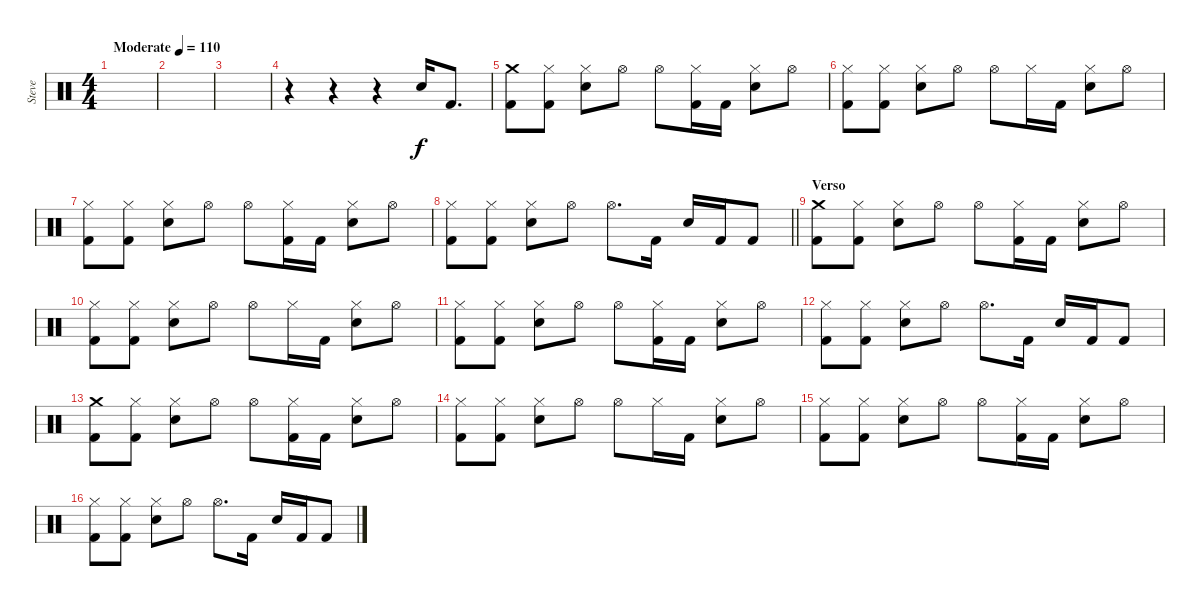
\track ("Steve " "Steve ") {instrument percussion}
\staff {score}
\articulation defaults
\ts (4 4)
\tempo (110 "Moderate")
\clef neutral
\ks c
|
|
|
r.4 r.4 r.4 "Electric Snare (hit)".16 "Kick (hit) 2".8{d} |
("Crash medium (hit)" "Kick (hit) 2").8 ("Hi-Hat (closed)" "Kick (hit) 2").8 ("Hi-Hat (closed)" "Electric Snare (hit)").8 "Hi-Hat (open)".8 "Hi-Hat (open)".8 ("Hi-Hat (closed)" "Kick (hit) 2").16 "Kick (hit) 2".16 ("Hi-Hat (closed)" "Electric Snare (hit)").8 "Hi-Hat (open)".8 |
("Hi-Hat (closed)" "Kick (hit) 2").8 ("Hi-Hat (closed)" "Kick (hit) 2").8 ("Hi-Hat (closed)" "Electric Snare (hit)").8 "Hi-Hat (open)".8 "Hi-Hat (open)".8 "Hi-Hat (closed)".16 "Kick (hit) 2".16 ("Hi-Hat (closed)" "Electric Snare (hit)").8 "Hi-Hat (open)".8 |
("Hi-Hat (closed)" "Kick (hit) 2").8 ("Hi-Hat (closed)" "Kick (hit) 2").8 ("Hi-Hat (closed)" "Electric Snare (hit)").8 "Hi-Hat (open)".8 "Hi-Hat (open)".8 ("Hi-Hat (closed)" "Kick (hit) 2").16 "Kick (hit) 2".16 ("Hi-Hat (closed)" "Electric Snare (hit)").8 "Hi-Hat (open)".8 |
\barLineRight lightlight
("Hi-Hat (closed)" "Kick (hit) 2").8 ("Hi-Hat (closed)" "Kick (hit) 2").8 ("Hi-Hat (closed)" "Electric Snare (hit)").8 "Hi-Hat (open)".8 "Hi-Hat (open)".8{d} "Kick (hit) 2".16 "Electric Snare (hit)".16 "Kick (hit) 2".16 "Kick (hit) 2".8 |
\section ("" "Verso")
("Crash medium (hit)" "Kick (hit) 2").8 ("Hi-Hat (closed)" "Kick (hit) 2").8 ("Hi-Hat (closed)" "Electric Snare (hit)").8 "Hi-Hat (open)".8 "Hi-Hat (open)".8 ("Hi-Hat (closed)" "Kick (hit) 2").16 "Kick (hit) 2".16 ("Hi-Hat (closed)" "Electric Snare (hit)").8 "Hi-Hat (open)".8 |
("Hi-Hat (closed)" "Kick (hit) 2").8 ("Hi-Hat (closed)" "Kick (hit) 2").8 ("Hi-Hat (closed)" "Electric Snare (hit)").8 "Hi-Hat (open)".8 "Hi-Hat (open)".8 "Hi-Hat (closed)".16 "Kick (hit) 2".16 ("Hi-Hat (closed)" "Electric Snare (hit)").8 "Hi-Hat (open)".8 |
("Hi-Hat (closed)" "Kick (hit) 2").8 ("Hi-Hat (closed)" "Kick (hit) 2").8 ("Hi-Hat (closed)" "Electric Snare (hit)").8 "Hi-Hat (open)".8 "Hi-Hat (open)".8 ("Hi-Hat (closed)" "Kick (hit) 2").16 "Kick (hit) 2".16 ("Hi-Hat (closed)" "Electric Snare (hit)").8 "Hi-Hat (open)".8 |
("Hi-Hat (closed)" "Kick (hit) 2").8 ("Hi-Hat (closed)" "Kick (hit) 2").8 ("Hi-Hat (closed)" "Electric Snare (hit)").8 "Hi-Hat (open)".8 "Hi-Hat (open)".8{d} "Kick (hit) 2".16 "Electric Snare (hit)".16 "Kick (hit) 2".16 "Kick (hit) 2".8 |
("Crash medium (hit)" "Kick (hit) 2").8 ("Hi-Hat (closed)" "Kick (hit) 2").8 ("Hi-Hat (closed)" "Electric Snare (hit)").8 "Hi-Hat (open)".8 "Hi-Hat (open)".8 ("Hi-Hat (closed)" "Kick (hit) 2").16 "Kick (hit) 2".16 ("Hi-Hat (closed)" "Electric Snare (hit)").8 "Hi-Hat (open)".8 |
("Hi-Hat (closed)" "Kick (hit) 2").8 ("Hi-Hat (closed)" "Kick (hit) 2").8 ("Hi-Hat (closed)" "Electric Snare (hit)").8 "Hi-Hat (open)".8 "Hi-Hat (open)".8 "Hi-Hat (closed)".16 "Kick (hit) 2".16 ("Hi-Hat (closed)" "Electric Snare (hit)").8 "Hi-Hat (open)".8 |
("Hi-Hat (closed)" "Kick (hit) 2").8 ("Hi-Hat (closed)" "Kick (hit) 2").8 ("Hi-Hat (closed)" "Electric Snare (hit)").8 "Hi-Hat (open)".8 "Hi-Hat (open)".8 ("Hi-Hat (closed)" "Kick (hit) 2").16 "Kick (hit) 2".16 ("Hi-Hat (closed)" "Electric Snare (hit)").8 "Hi-Hat (open)".8 |
("Hi-Hat (closed)" "Kick (hit) 2").8 ("Hi-Hat (closed)" "Kick (hit) 2").8 ("Hi-Hat (closed)" "Electric Snare (hit)").8 "Hi-Hat (open)".8 "Hi-Hat (open)".8{d} "Kick (hit) 2".16 "Electric Snare (hit)".16 "Kick (hit) 2".16 "Kick (hit) 2".8
